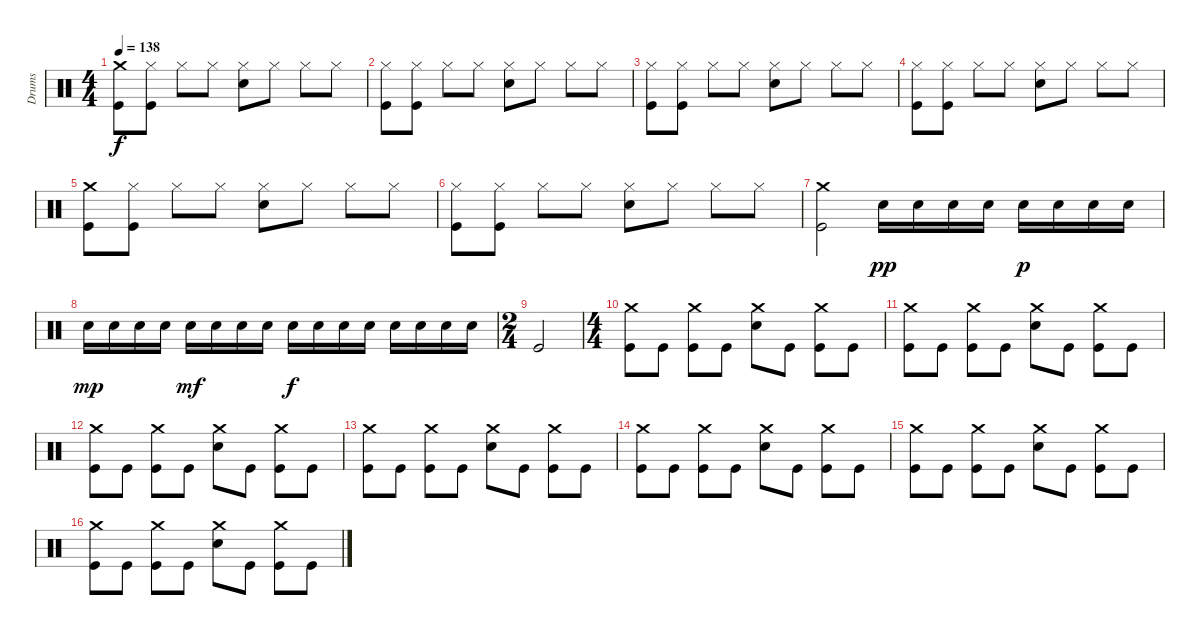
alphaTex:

\track ("Drums" "Drums") {instrument percussion}
\staff {score}
\articulation defaults
\ts (4 4)
\tempo 138
\clef neutral
\ks c
("Crash medium (hit)" "Kick (hit)").8{dy f} ("Hi-Hat (closed)" "Kick (hit)").8 "Hi-Hat (closed)".8 "Hi-Hat (closed)".8 ("Hi-Hat (closed)" "Snare (hit) 2").8 "Hi-Hat (closed)".8 "Hi-Hat (closed)".8 "Hi-Hat (closed)".8 |
("Hi-Hat (closed)" "Kick (hit)").8 ("Hi-Hat (closed)" "Kick (hit)").8 "Hi-Hat (closed)".8 "Hi-Hat (closed)".8 ("Hi-Hat (closed)" "Snare (hit) 2").8 "Hi-Hat (closed)".8 "Hi-Hat (closed)".8 "Hi-Hat (closed)".8 |
("Hi-Hat (closed)" "Kick (hit)").8 ("Hi-Hat (closed)" "Kick (hit)").8 "Hi-Hat (closed)".8 "Hi-Hat (closed)".8 ("Hi-Hat (closed)" "Snare (hit) 2").8 "Hi-Hat (closed)".8 "Hi-Hat (closed)".8 "Hi-Hat (closed)".8 |
("Hi-Hat (closed)" "Kick (hit)").8 ("Hi-Hat (closed)" "Kick (hit)").8 "Hi-Hat (closed)".8 "Hi-Hat (closed)".8 ("Hi-Hat (closed)" "Snare (hit) 2").8 "Hi-Hat (closed)".8 "Hi-Hat (closed)".8 "Hi-Hat (closed)".8 |
("Crash medium (hit)" "Kick (hit)").8 ("Hi-Hat (closed)" "Kick (hit)").8 "Hi-Hat (closed)".8 "Hi-Hat (closed)".8 ("Hi-Hat (closed)" "Snare (hit) 2").8 "Hi-Hat (closed)".8 "Hi-Hat (closed)".8 "Hi-Hat (closed)".8 |
("Hi-Hat (closed)" "Kick (hit)").8 ("Hi-Hat (closed)" "Kick (hit)").8 "Hi-Hat (closed)".8 "Hi-Hat (closed)".8 ("Hi-Hat (closed)" "Snare (hit) 2").8 "Hi-Hat (closed)".8 "Hi-Hat (closed)".8 "Hi-Hat (closed)".8 |
("Crash medium (hit)" "Kick (hit)").2 "Snare (hit) 2".16{dy pp} "Snare (hit) 2".16 "Snare (hit) 2".16 "Snare (hit) 2".16 "Snare (hit) 2".16{dy p} "Snare (hit) 2".16 "Snare (hit) 2".16 "Snare (hit) 2".16 |
"Snare (hit) 2".16{dy mp} "Snare (hit) 2".16 "Snare (hit) 2".16 "Snare (hit) 2".16 "Snare (hit) 2".16{dy mf} "Snare (hit) 2".16 "Snare (hit) 2".16 "Snare (hit) 2".16 "Snare (hit) 2".16{dy f} "Snare (hit) 2".16 "Snare (hit) 2".16 "Snare (hit) 2".16 "Snare (hit) 2".16 "Snare (hit) 2".16 "Snare (hit) 2".16 "Snare (hit) 2".16 |
\ts (2 4)
"Kick (hit)".2 |
\ts (4 4)
("Crash medium (hit)" "Kick (hit)").8 "Kick (hit)".8 ("Crash medium (hit)" "Kick (hit)").8 "Kick (hit)".8 ("Crash medium (hit)" "Snare (hit) 2").8 "Kick (hit)".8 ("Crash medium (hit)" "Kick (hit)").8 "Kick (hit)".8 |
("Crash medium (hit)" "Kick (hit)").8 "Kick (hit)".8 ("Crash medium (hit)" "Kick (hit)").8 "Kick (hit)".8 ("Crash medium (hit)" "Snare (hit) 2").8 "Kick (hit)".8 ("Crash medium (hit)" "Kick (hit)").8 "Kick (hit)".8 |
("Crash medium (hit)" "Kick (hit)").8 "Kick (hit)".8 ("Crash medium (hit)" "Kick (hit)").8 "Kick (hit)".8 ("Crash medium (hit)" "Snare (hit) 2").8 "Kick (hit)".8 ("Crash medium (hit)" "Kick (hit)").8 "Kick (hit)".8 |
("Crash medium (hit)" "Kick (hit)").8 "Kick (hit)".8 ("Crash medium (hit)" "Kick (hit)").8 "Kick (hit)".8 ("Crash medium (hit)" "Snare (hit) 2").8 "Kick (hit)".8 ("Crash medium (hit)" "Kick (hit)").8 "Kick (hit)".8 |
("Crash medium (hit)" "Kick (hit)").8 "Kick (hit)".8 ("Crash medium (hit)" "Kick (hit)").8 "Kick (hit)".8 ("Crash medium (hit)" "Snare (hit) 2").8 "Kick (hit)".8 ("Crash medium (hit)" "Kick (hit)").8 "Kick (hit)".8 |
("Crash medium (hit)" "Kick (hit)").8 "Kick (hit)".8 ("Crash medium (hit)" "Kick (hit)").8 "Kick (hit)".8 ("Crash medium (hit)" "Snare (hit) 2").8 "Kick (hit)".8 ("Crash medium (hit)" "Kick (hit)").8 "Kick (hit)".8 |
("Crash medium (hit)" "Kick (hit)").8 "Kick (hit)".8 ("Crash medium (hit)" "Kick (hit)").8 "Kick (hit)".8 ("Crash medium (hit)" "Snare (hit) 2").8 "Kick (hit)".8 ("Crash medium (hit)" "Kick (hit)").8 "Kick (hit)".8
